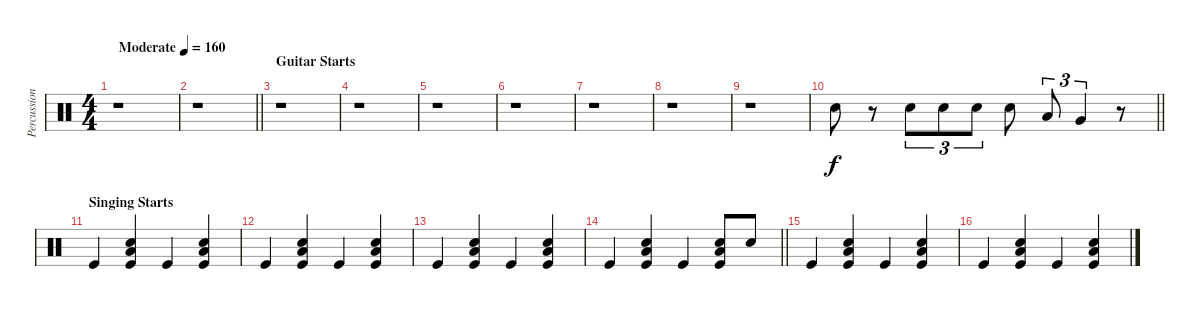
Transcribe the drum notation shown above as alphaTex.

\track ("Percussion" "Percussion") {instrument percussion}
\staff {score}
\articulation defaults
\ts (4 4)
\tempo (160 "Moderate")
\clef neutral
\ks c
r.1{dy f volume 14} |
\barLineRight lightlight
r.1 |
\section ("" "Guitar Starts")
r.1 |
r.1 |
r.1 |
r.1 |
r.1 |
r.1 |
r.1 |
\barLineRight lightlight "Electric Snare (hit)".8
r.8 "Electric Snare (hit)".8{tu (3 2)} "Electric Snare (hit)".8{tu (3 2)} "Electric Snare (hit)".8{tu (3 2)} "Electric Snare (hit)".8 "Low Tom (hit)".8{tu (3 2)} "Very Low Tom (hit)".4{tu (3 2)} r.8 |
\section ("" "Singing Starts")
"Kick (hit)".4 ("Electric Snare (hit)" "Low Tom (hit)" "Kick (hit)").4 "Kick (hit)".4 ("Electric Snare (hit)" "Low Tom (hit)" "Kick (hit)").4 |
"Kick (hit)".4 ("Electric Snare (hit)" "Low Tom (hit)" "Kick (hit)").4 "Kick (hit)".4 ("Electric Snare (hit)" "Low Tom (hit)" "Kick (hit)").4 |
"Kick (hit)".4 ("Electric Snare (hit)" "Low Tom (hit)" "Kick (hit)").4 "Kick (hit)".4 ("Electric Snare (hit)" "Low Tom (hit)" "Kick (hit)").4 |
\barLineRight lightlight "Kick (hit)".4
("Electric Snare (hit)" "Low Tom (hit)" "Kick (hit)").4 "Kick (hit)".4 ("Electric Snare (hit)" "Low Tom (hit)" "Kick (hit)").8 "Electric Snare (hit)".8 |
"Kick (hit)".4 ("Electric Snare (hit)" "Low Tom (hit)" "Kick (hit)").4 "Kick (hit)".4 ("Electric Snare (hit)" "Low Tom (hit)" "Kick (hit)").4 |
"Kick (hit)".4 ("Electric Snare (hit)" "Low Tom (hit)" "Kick (hit)").4 "Kick (hit)".4 ("Electric Snare (hit)" "Low Tom (hit)" "Kick (hit)").4
